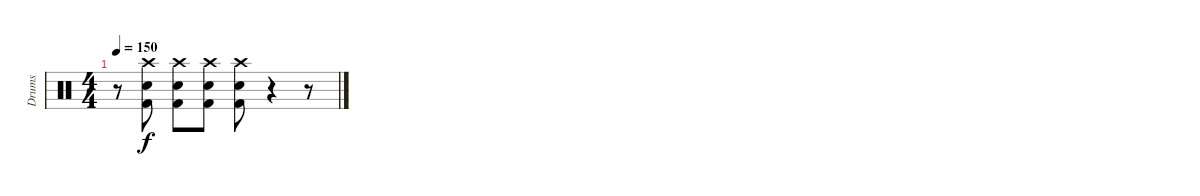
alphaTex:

\track ("Drums" "Drums") {instrument percussion}
\staff {score}
\articulation defaults
\ts (4 4)
\tempo 150
\clef neutral
\ks c
r.8{dy f} ("Crash high (hit)" "Snare (hit) 2" "Kick (hit) 2").8 ("Crash high (hit)" "Snare (hit) 2" "Kick (hit) 2").8 ("Crash high (hit)" "Snare (hit) 2" "Kick (hit) 2").8 ("Crash high (hit)" "Snare (hit) 2" "Kick (hit) 2").8 r.4 r.8
